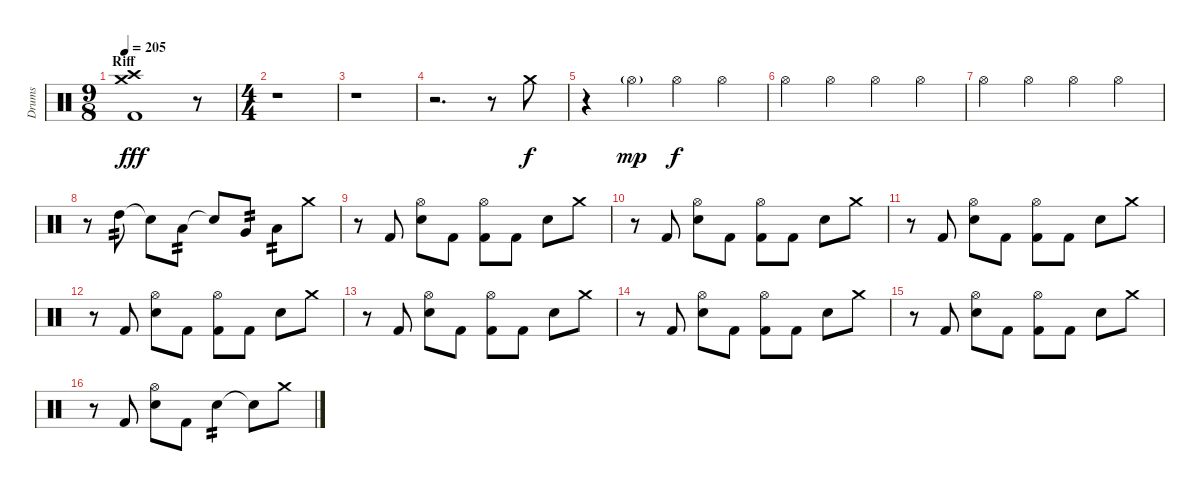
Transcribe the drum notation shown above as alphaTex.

\track ("Drums" "Drums") {instrument percussion}
\staff {score}
\articulation defaults
\ts (9 8)
\section ("" "Riff")
\tempo 205
\clef neutral
\ks c
("Crash medium (hit)" "Crash high (hit)" "Kick (hit) 2").1{dy fff} r.8 |
\ts (4 4)
r.1 |
r.1 |
r.2{d} r.8 "Crash medium (hit)".8{dy f} |
r.4 "Hi-Hat (open)"{g}.4{dy mp} "Hi-Hat (open)".4{dy f} "Hi-Hat (open)".4 |
"Hi-Hat (open)".4 "Hi-Hat (open)".4 "Hi-Hat (open)".4 "Hi-Hat (open)".4 |
"Hi-Hat (open)".4 "Hi-Hat (open)".4 "Hi-Hat (open)".4 "Hi-Hat (open)".4 |
r.8 "High Tom (hit)".8{tp 2} "Snare (hit)"{t}.8 "Low Tom (hit)".8{tp 2} "Snare (hit)"{t}.8 "Very Low Tom (hit)".8{tp 2} "Low Floor Tom (hit)".8{tp 2} "Crash medium (hit)".8 |
r.8 "Kick (hit) 2".8 ("Hi-Hat (open)" "Electric Snare (hit)").8 "Kick (hit) 2".8 ("Hi-Hat (open)" "Kick (hit) 2").8 "Kick (hit) 2".8 "Electric Snare (hit)".8 "Crash medium (hit)".8 |
r.8 "Kick (hit) 2".8 ("Hi-Hat (open)" "Electric Snare (hit)").8 "Kick (hit) 2".8 ("Hi-Hat (open)" "Kick (hit) 2").8 "Kick (hit) 2".8 "Electric Snare (hit)".8 "Crash medium (hit)".8 |
r.8 "Kick (hit) 2".8 ("Hi-Hat (open)" "Electric Snare (hit)").8 "Kick (hit) 2".8 ("Hi-Hat (open)" "Kick (hit) 2").8 "Kick (hit) 2".8 "Electric Snare (hit)".8 "Crash medium (hit)".8 |
r.8 "Kick (hit) 2".8 ("Hi-Hat (open)" "Electric Snare (hit)").8 "Kick (hit) 2".8 ("Hi-Hat (open)" "Kick (hit) 2").8 "Kick (hit) 2".8 "Electric Snare (hit)".8 "Crash medium (hit)".8 |
r.8 "Kick (hit) 2".8 ("Hi-Hat (open)" "Electric Snare (hit)").8 "Kick (hit) 2".8 ("Hi-Hat (open)" "Kick (hit) 2").8 "Kick (hit) 2".8 "Electric Snare (hit)".8 "Crash medium (hit)".8 |
r.8 "Kick (hit) 2".8 ("Hi-Hat (open)" "Electric Snare (hit)").8 "Kick (hit) 2".8 ("Hi-Hat (open)" "Kick (hit) 2").8 "Kick (hit) 2".8 "Electric Snare (hit)".8 "Crash medium (hit)".8 |
r.8 "Kick (hit) 2".8 ("Hi-Hat (open)" "Electric Snare (hit)").8 "Kick (hit) 2".8 ("Hi-Hat (open)" "Kick (hit) 2").8 "Kick (hit) 2".8 "Electric Snare (hit)".8 "Crash medium (hit)".8 |
r.8 "Kick (hit) 2".8 ("Hi-Hat (open)" "Electric Snare (hit)").8 "Kick (hit) 2".8 "Electric Snare (hit)".4{tp 2} "Snare (hit)"{t}.8 "Crash medium (hit)".8
